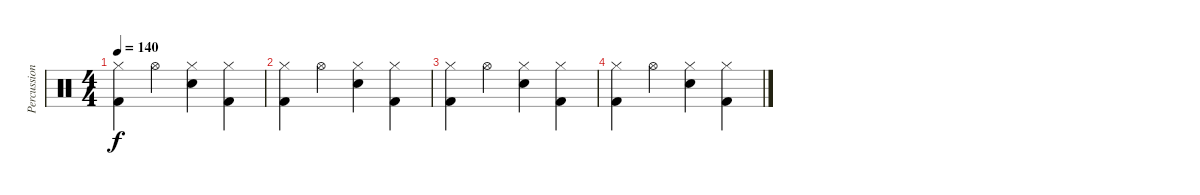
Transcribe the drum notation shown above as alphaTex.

\track ("Percussions" "Percussion") {instrument percussion}
\staff {score}
\articulation defaults
\ts (4 4)
\tempo 140
\clef neutral
\ks c
("Hi-Hat (closed)" "Kick (hit) 2").4{dy f} "Hi-Hat (open)".4 ("Hi-Hat (closed)" "Snare (hit) 2").4 ("Hi-Hat (closed)" "Kick (hit) 2").4 |
("Hi-Hat (closed)" "Kick (hit) 2").4 "Hi-Hat (open)".4 ("Hi-Hat (closed)" "Snare (hit) 2").4 ("Hi-Hat (closed)" "Kick (hit) 2").4 |
("Hi-Hat (closed)" "Kick (hit) 2").4 "Hi-Hat (open)".4 ("Hi-Hat (closed)" "Snare (hit) 2").4 ("Hi-Hat (closed)" "Kick (hit) 2").4 |
("Hi-Hat (closed)" "Kick (hit) 2").4 "Hi-Hat (open)".4 ("Hi-Hat (closed)" "Snare (hit) 2").4 ("Hi-Hat (closed)" "Kick (hit) 2").4
